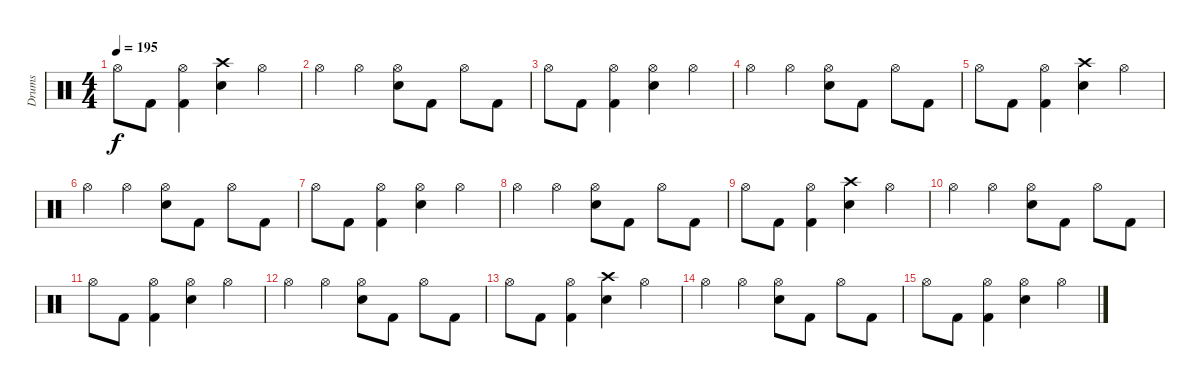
\track ("Drums" "Drums") {instrument percussion}
\staff {score}
\articulation defaults
\ts (4 4)
\tempo 195
\clef neutral
\ks c "Hi-Hat (open)".8{dy f} "Kick (hit) 2".8
("Hi-Hat (open)" "Kick (hit) 2").4 ("Crash high (hit)" "Electric Snare (hit)").4 "Hi-Hat (open)".4 |
"Hi-Hat (open)".4{volume 11} "Hi-Hat (open)".4 ("Hi-Hat (open)" "Electric Snare (hit)").8 "Kick (hit) 2".8 "Hi-Hat (open)".8 "Kick (hit) 2".8 |
"Hi-Hat (open)".8 "Kick (hit) 2".8 ("Hi-Hat (open)" "Kick (hit) 2").4 ("Hi-Hat (open)" "Electric Snare (hit)").4 "Hi-Hat (open)".4 |
"Hi-Hat (open)".4 "Hi-Hat (open)".4 ("Hi-Hat (open)" "Electric Snare (hit)").8 "Kick (hit) 2".8 "Hi-Hat (open)".8 "Kick (hit) 2".8 |
"Hi-Hat (open)".8 "Kick (hit) 2".8 ("Hi-Hat (open)" "Kick (hit) 2").4 ("Crash high (hit)" "Electric Snare (hit)").4 "Hi-Hat (open)".4 |
"Hi-Hat (open)".4 "Hi-Hat (open)".4 ("Hi-Hat (open)" "Electric Snare (hit)").8 "Kick (hit) 2".8 "Hi-Hat (open)".8 "Kick (hit) 2".8 |
"Hi-Hat (open)".8{volume 9} "Kick (hit) 2".8 ("Hi-Hat (open)" "Kick (hit) 2").4 ("Hi-Hat (open)" "Electric Snare (hit)").4 "Hi-Hat (open)".4 |
"Hi-Hat (open)".4 "Hi-Hat (open)".4 ("Hi-Hat (open)" "Electric Snare (hit)").8 "Kick (hit) 2".8 "Hi-Hat (open)".8 "Kick (hit) 2".8 |
"Hi-Hat (open)".8 "Kick (hit) 2".8 ("Hi-Hat (open)" "Kick (hit) 2").4 ("Crash high (hit)" "Electric Snare (hit)").4 "Hi-Hat (open)".4 |
"Hi-Hat (open)".4 "Hi-Hat (open)".4 ("Hi-Hat (open)" "Electric Snare (hit)").8 "Kick (hit) 2".8 "Hi-Hat (open)".8 "Kick (hit) 2".8 |
"Hi-Hat (open)".8 "Kick (hit) 2".8 ("Hi-Hat (open)" "Kick (hit) 2").4 ("Hi-Hat (open)" "Electric Snare (hit)").4 "Hi-Hat (open)".4 |
"Hi-Hat (open)".4 "Hi-Hat (open)".4 ("Hi-Hat (open)" "Electric Snare (hit)").8 "Kick (hit) 2".8 "Hi-Hat (open)".8 "Kick (hit) 2".8 |
"Hi-Hat (open)".8 "Kick (hit) 2".8 ("Hi-Hat (open)" "Kick (hit) 2").4 ("Crash high (hit)" "Electric Snare (hit)").4 "Hi-Hat (open)".4 |
"Hi-Hat (open)".4{volume 0} "Hi-Hat (open)".4 ("Hi-Hat (open)" "Electric Snare (hit)").8 "Kick (hit) 2".8 "Hi-Hat (open)".8 "Kick (hit) 2".8 |
"Hi-Hat (open)".8 "Kick (hit) 2".8 ("Hi-Hat (open)" "Kick (hit) 2").4 ("Hi-Hat (open)" "Electric Snare (hit)").4 "Hi-Hat (open)".4
